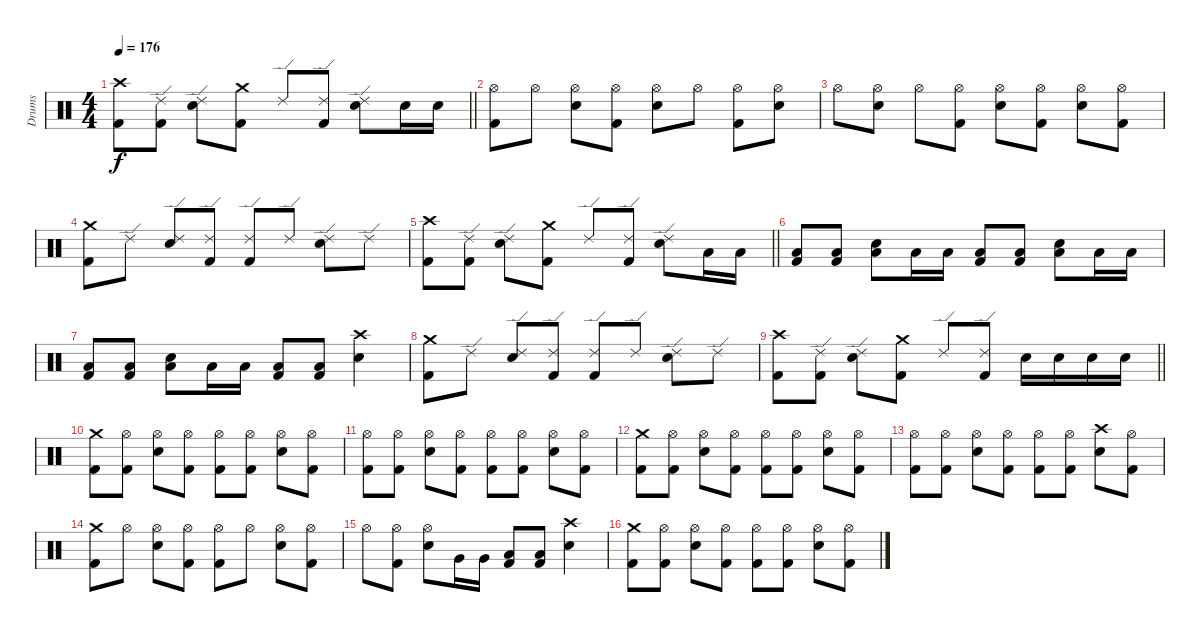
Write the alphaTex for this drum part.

\track ("Drums" "Drums") {instrument percussion}
\staff {score}
\articulation defaults
\ts (4 4)
\tempo 176
\clef neutral
\barLineRight lightlight
\ks c
("Crash high (hit)" "Kick (hit) 2").8{dy f} ("Ride (edge) 2" "Kick (hit) 2").8 ("Ride (edge) 2" "Electric Snare (hit)").8 ("Crash medium (hit)" "Kick (hit) 2").8 "Ride (edge) 2".8 ("Ride (edge) 2" "Kick (hit) 2").8 ("Ride (edge) 2" "Electric Snare (hit)").8 "Electric Snare (hit)".16 "Electric Snare (hit)".16 |
("Hi-Hat (open)" "Kick (hit) 2").8 "Hi-Hat (open)".8 ("Hi-Hat (open)" "Electric Snare (hit)").8 ("Hi-Hat (open)" "Kick (hit) 2").8 ("Hi-Hat (open)" "Electric Snare (hit)").8 "Hi-Hat (open)".8 ("Hi-Hat (open)" "Kick (hit) 2").8 ("Hi-Hat (open)" "Electric Snare (hit)").8 |
"Hi-Hat (open)".8 ("Hi-Hat (open)" "Electric Snare (hit)").8 "Hi-Hat (open)".8 ("Hi-Hat (open)" "Kick (hit) 2").8 ("Hi-Hat (open)" "Electric Snare (hit)").8 ("Hi-Hat (open)" "Kick (hit) 2").8 ("Hi-Hat (open)" "Electric Snare (hit)").8 ("Hi-Hat (open)" "Kick (hit) 2").8 |
("Crash medium (hit)" "Kick (hit) 2").8 "Ride (edge) 2".8 ("Ride (edge) 2" "Electric Snare (hit)").8 ("Ride (edge) 2" "Kick (hit) 2").8 ("Ride (edge) 2" "Kick (hit) 2").8 "Ride (edge) 2".8 ("Ride (edge) 2" "Electric Snare (hit)").8 "Ride (edge) 2".8 |
\barLineRight lightlight
("Crash high (hit)" "Kick (hit) 2").8 ("Ride (edge) 2" "Kick (hit) 2").8 ("Ride (edge) 2" "Electric Snare (hit)").8 ("Crash medium (hit)" "Kick (hit) 2").8 "Ride (edge) 2".8 ("Ride (edge) 2" "Kick (hit) 2").8 ("Ride (edge) 2" "Electric Snare (hit)").8 "Low Floor Tom (hit)".16 "Low Floor Tom (hit)".16 |
("Low Floor Tom (hit)" "Kick (hit) 2").8 ("Low Floor Tom (hit)" "Kick (hit) 2").8 ("Electric Snare (hit)" "Low Floor Tom (hit)").8 "Low Floor Tom (hit)".16 "Low Floor Tom (hit)".16 ("Low Floor Tom (hit)" "Kick (hit) 2").8 ("Low Floor Tom (hit)" "Kick (hit) 2").8 ("Electric Snare (hit)" "Low Floor Tom (hit)").8 "Low Floor Tom (hit)".16 "Low Floor Tom (hit)".16 |
("Low Floor Tom (hit)" "Kick (hit) 2").8 ("Low Floor Tom (hit)" "Kick (hit) 2").8 ("Electric Snare (hit)" "Low Floor Tom (hit)").8 "Low Floor Tom (hit)".16 "Low Floor Tom (hit)".16 ("Low Floor Tom (hit)" "Kick (hit) 2").8 ("Low Floor Tom (hit)" "Kick (hit) 2").8 ("Crash high (hit)" "Electric Snare (hit)").4 |
("Crash medium (hit)" "Kick (hit) 2").8 "Ride (edge) 2".8 ("Ride (edge) 2" "Electric Snare (hit)").8 ("Ride (edge) 2" "Kick (hit) 2").8 ("Ride (edge) 2" "Kick (hit) 2").8 "Ride (edge) 2".8 ("Ride (edge) 2" "Electric Snare (hit)").8 "Ride (edge) 2".8 |
\barLineRight lightlight
("Crash high (hit)" "Kick (hit) 2").8 ("Ride (edge) 2" "Kick (hit) 2").8 ("Ride (edge) 2" "Electric Snare (hit)").8 ("Crash medium (hit)" "Kick (hit) 2").8 "Ride (edge) 2".8 ("Ride (edge) 2" "Kick (hit) 2").8 "Electric Snare (hit)".16 "Electric Snare (hit)".16 "Electric Snare (hit)".16 "Electric Snare (hit)".16 |
("Crash medium (hit)" "Kick (hit) 2").8 ("Hi-Hat (open)" "Kick (hit) 2").8 ("Hi-Hat (open)" "Electric Snare (hit)").8 ("Hi-Hat (open)" "Kick (hit) 2").8 ("Hi-Hat (open)" "Kick (hit) 2").8 ("Hi-Hat (open)" "Kick (hit) 2").8 ("Hi-Hat (open)" "Electric Snare (hit)").8 ("Hi-Hat (open)" "Kick (hit) 2").8 |
("Hi-Hat (open)" "Kick (hit) 2").8 ("Hi-Hat (open)" "Kick (hit) 2").8 ("Hi-Hat (open)" "Electric Snare (hit)").8 ("Hi-Hat (open)" "Kick (hit) 2").8 ("Hi-Hat (open)" "Kick (hit) 2").8 ("Hi-Hat (open)" "Kick (hit) 2").8 ("Hi-Hat (open)" "Electric Snare (hit)").8 ("Hi-Hat (open)" "Kick (hit) 2").8 |
("Crash medium (hit)" "Kick (hit) 2").8 ("Hi-Hat (open)" "Kick (hit) 2").8 ("Hi-Hat (open)" "Electric Snare (hit)").8 ("Hi-Hat (open)" "Kick (hit) 2").8 ("Hi-Hat (open)" "Kick (hit) 2").8 ("Hi-Hat (open)" "Kick (hit) 2").8 ("Hi-Hat (open)" "Electric Snare (hit)").8 ("Hi-Hat (open)" "Kick (hit) 2").8 |
("Hi-Hat (open)" "Kick (hit) 2").8 ("Hi-Hat (open)" "Kick (hit) 2").8 ("Hi-Hat (open)" "Electric Snare (hit)").8 ("Hi-Hat (open)" "Kick (hit) 2").8 ("Hi-Hat (open)" "Kick (hit) 2").8 ("Hi-Hat (open)" "Kick (hit) 2").8 ("Crash high (hit)" "Electric Snare (hit)").8 ("Hi-Hat (open)" "Kick (hit) 2").8 |
("Crash medium (hit)" "Kick (hit) 2").8 "Hi-Hat (open)".8 ("Hi-Hat (open)" "Electric Snare (hit)").8 ("Hi-Hat (open)" "Kick (hit) 2").8 ("Hi-Hat (open)" "Kick (hit) 2").8 "Hi-Hat (open)".8 ("Hi-Hat (open)" "Electric Snare (hit)").8 ("Hi-Hat (open)" "Kick (hit) 2").8 |
"Hi-Hat (open)".8 ("Hi-Hat (open)" "Kick (hit) 2").8 ("Hi-Hat (open)" "Electric Snare (hit)").8 "Very Low Tom (hit)".16 "Very Low Tom (hit)".16 ("Low Floor Tom (hit)" "Kick (hit) 2").8 ("Low Floor Tom (hit)" "Kick (hit) 2").8 ("Crash high (hit)" "Electric Snare (hit)").4 |
("Crash medium (hit)" "Kick (hit) 2").8 ("Hi-Hat (open)" "Kick (hit) 2").8 ("Hi-Hat (open)" "Electric Snare (hit)").8 ("Hi-Hat (open)" "Kick (hit) 2").8 ("Hi-Hat (open)" "Kick (hit) 2").8 ("Hi-Hat (open)" "Kick (hit) 2").8 ("Hi-Hat (open)" "Electric Snare (hit)").8 ("Hi-Hat (open)" "Kick (hit) 2").8
